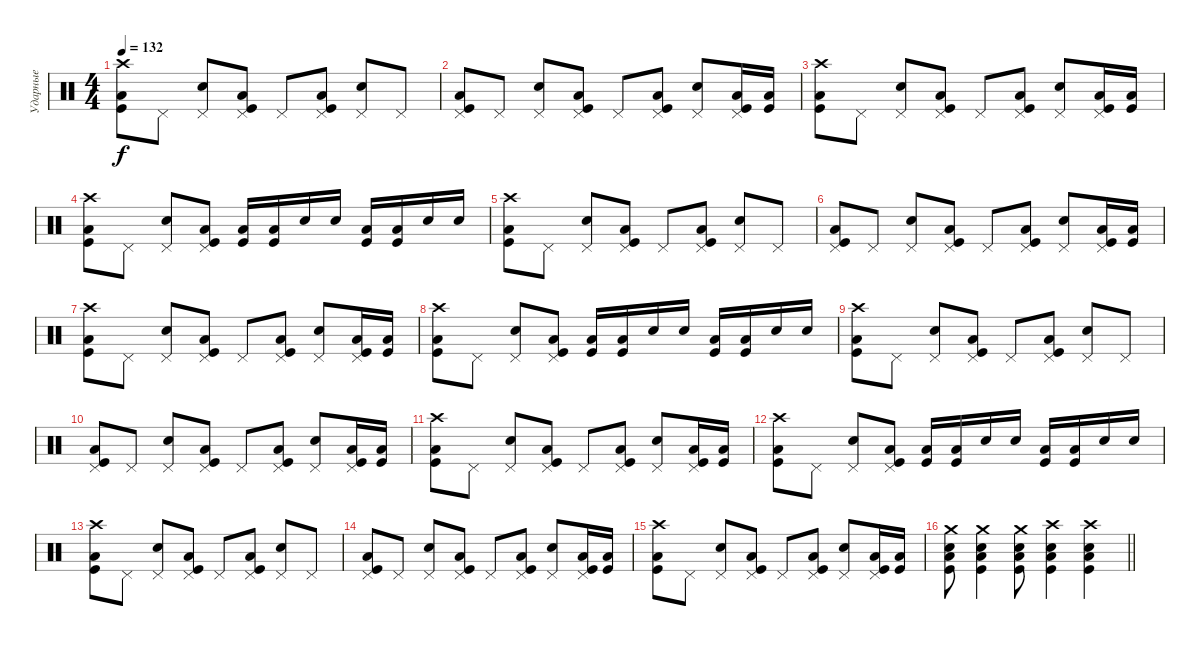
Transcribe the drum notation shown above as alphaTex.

\track ("Ударные" "Ударные") {instrument percussion}
\staff {score}
\articulation defaults
\ts (4 4)
\tempo 132
\clef neutral
\ks c
("Crash high (hit)" "Low Tom (hit)" "Kick (hit)").8{dy f} "Pedal Hi-Hat (hit)".8 ("Pedal Hi-Hat (hit)" "Snare (hit) 2").8 ("Pedal Hi-Hat (hit)" "Low Tom (hit)" "Kick (hit)").8 "Pedal Hi-Hat (hit)".8 ("Pedal Hi-Hat (hit)" "Low Tom (hit)" "Kick (hit)").8 ("Pedal Hi-Hat (hit)" "Snare (hit) 2").8 "Pedal Hi-Hat (hit)".8 |
("Pedal Hi-Hat (hit)" "Low Tom (hit)" "Kick (hit)").8 "Pedal Hi-Hat (hit)".8 ("Pedal Hi-Hat (hit)" "Snare (hit) 2").8 ("Pedal Hi-Hat (hit)" "Low Tom (hit)" "Kick (hit)").8 "Pedal Hi-Hat (hit)".8 ("Pedal Hi-Hat (hit)" "Low Tom (hit)" "Kick (hit)").8 ("Pedal Hi-Hat (hit)" "Snare (hit) 2").8 ("Pedal Hi-Hat (hit)" "Low Tom (hit)" "Kick (hit)").16 ("Low Tom (hit)" "Kick (hit)").16 |
("Crash high (hit)" "Low Tom (hit)" "Kick (hit)").8 "Pedal Hi-Hat (hit)".8 ("Pedal Hi-Hat (hit)" "Snare (hit) 2").8 ("Pedal Hi-Hat (hit)" "Low Tom (hit)" "Kick (hit)").8 "Pedal Hi-Hat (hit)".8 ("Pedal Hi-Hat (hit)" "Low Tom (hit)" "Kick (hit)").8 ("Pedal Hi-Hat (hit)" "Snare (hit) 2").8 ("Pedal Hi-Hat (hit)" "Low Tom (hit)" "Kick (hit)").16 ("Low Tom (hit)" "Kick (hit)").16 |
("Crash high (hit)" "Low Tom (hit)" "Kick (hit)").8 "Pedal Hi-Hat (hit)".8 ("Pedal Hi-Hat (hit)" "Snare (hit) 2").8 ("Pedal Hi-Hat (hit)" "Low Tom (hit)" "Kick (hit)").8 ("Low Tom (hit)" "Kick (hit)").16 ("Low Tom (hit)" "Kick (hit)").16 "Electric Snare (hit)".16 "Electric Snare (hit)".16 ("Low Tom (hit)" "Kick (hit)").16 ("Low Tom (hit)" "Kick (hit)").16 "Electric Snare (hit)".16 "Electric Snare (hit)".16 |
("Crash high (hit)" "Low Tom (hit)" "Kick (hit)").8 "Pedal Hi-Hat (hit)".8 ("Pedal Hi-Hat (hit)" "Snare (hit) 2").8 ("Pedal Hi-Hat (hit)" "Low Tom (hit)" "Kick (hit)").8 "Pedal Hi-Hat (hit)".8 ("Pedal Hi-Hat (hit)" "Low Tom (hit)" "Kick (hit)").8 ("Pedal Hi-Hat (hit)" "Snare (hit) 2").8 "Pedal Hi-Hat (hit)".8 |
("Pedal Hi-Hat (hit)" "Low Tom (hit)" "Kick (hit)").8 "Pedal Hi-Hat (hit)".8 ("Pedal Hi-Hat (hit)" "Snare (hit) 2").8 ("Pedal Hi-Hat (hit)" "Low Tom (hit)" "Kick (hit)").8 "Pedal Hi-Hat (hit)".8 ("Pedal Hi-Hat (hit)" "Low Tom (hit)" "Kick (hit)").8 ("Pedal Hi-Hat (hit)" "Snare (hit) 2").8 ("Pedal Hi-Hat (hit)" "Low Tom (hit)" "Kick (hit)").16 ("Low Tom (hit)" "Kick (hit)").16 |
("Crash high (hit)" "Low Tom (hit)" "Kick (hit)").8 "Pedal Hi-Hat (hit)".8 ("Pedal Hi-Hat (hit)" "Snare (hit) 2").8 ("Pedal Hi-Hat (hit)" "Low Tom (hit)" "Kick (hit)").8 "Pedal Hi-Hat (hit)".8 ("Pedal Hi-Hat (hit)" "Low Tom (hit)" "Kick (hit)").8 ("Pedal Hi-Hat (hit)" "Snare (hit) 2").8 ("Pedal Hi-Hat (hit)" "Low Tom (hit)" "Kick (hit)").16 ("Low Tom (hit)" "Kick (hit)").16 |
("Crash high (hit)" "Low Tom (hit)" "Kick (hit)").8 "Pedal Hi-Hat (hit)".8 ("Pedal Hi-Hat (hit)" "Snare (hit) 2").8 ("Pedal Hi-Hat (hit)" "Low Tom (hit)" "Kick (hit)").8 ("Low Tom (hit)" "Kick (hit)").16 ("Low Tom (hit)" "Kick (hit)").16 "Electric Snare (hit)".16 "Electric Snare (hit)".16 ("Low Tom (hit)" "Kick (hit)").16 ("Low Tom (hit)" "Kick (hit)").16 "Electric Snare (hit)".16 "Electric Snare (hit)".16 |
("Crash high (hit)" "Low Tom (hit)" "Kick (hit)").8 "Pedal Hi-Hat (hit)".8 ("Pedal Hi-Hat (hit)" "Snare (hit) 2").8 ("Pedal Hi-Hat (hit)" "Low Tom (hit)" "Kick (hit)").8 "Pedal Hi-Hat (hit)".8 ("Pedal Hi-Hat (hit)" "Low Tom (hit)" "Kick (hit)").8 ("Pedal Hi-Hat (hit)" "Snare (hit) 2").8 "Pedal Hi-Hat (hit)".8 |
("Pedal Hi-Hat (hit)" "Low Tom (hit)" "Kick (hit)").8 "Pedal Hi-Hat (hit)".8 ("Pedal Hi-Hat (hit)" "Snare (hit) 2").8 ("Pedal Hi-Hat (hit)" "Low Tom (hit)" "Kick (hit)").8 "Pedal Hi-Hat (hit)".8 ("Pedal Hi-Hat (hit)" "Low Tom (hit)" "Kick (hit)").8 ("Pedal Hi-Hat (hit)" "Snare (hit) 2").8 ("Pedal Hi-Hat (hit)" "Low Tom (hit)" "Kick (hit)").16 ("Low Tom (hit)" "Kick (hit)").16 |
("Crash high (hit)" "Low Tom (hit)" "Kick (hit)").8 "Pedal Hi-Hat (hit)".8 ("Pedal Hi-Hat (hit)" "Snare (hit) 2").8 ("Pedal Hi-Hat (hit)" "Low Tom (hit)" "Kick (hit)").8 "Pedal Hi-Hat (hit)".8 ("Pedal Hi-Hat (hit)" "Low Tom (hit)" "Kick (hit)").8 ("Pedal Hi-Hat (hit)" "Snare (hit) 2").8 ("Pedal Hi-Hat (hit)" "Low Tom (hit)" "Kick (hit)").16 ("Low Tom (hit)" "Kick (hit)").16 |
("Crash high (hit)" "Low Tom (hit)" "Kick (hit)").8 "Pedal Hi-Hat (hit)".8 ("Pedal Hi-Hat (hit)" "Snare (hit) 2").8 ("Pedal Hi-Hat (hit)" "Low Tom (hit)" "Kick (hit)").8 ("Low Tom (hit)" "Kick (hit)").16 ("Low Tom (hit)" "Kick (hit)").16 "Electric Snare (hit)".16 "Electric Snare (hit)".16 ("Low Tom (hit)" "Kick (hit)").16 ("Low Tom (hit)" "Kick (hit)").16 "Electric Snare (hit)".16 "Electric Snare (hit)".16 |
("Crash high (hit)" "Low Tom (hit)" "Kick (hit)").8 "Pedal Hi-Hat (hit)".8 ("Pedal Hi-Hat (hit)" "Snare (hit) 2").8 ("Pedal Hi-Hat (hit)" "Low Tom (hit)" "Kick (hit)").8 "Pedal Hi-Hat (hit)".8 ("Pedal Hi-Hat (hit)" "Low Tom (hit)" "Kick (hit)").8 ("Pedal Hi-Hat (hit)" "Snare (hit) 2").8 "Pedal Hi-Hat (hit)".8 |
("Pedal Hi-Hat (hit)" "Low Tom (hit)" "Kick (hit)").8 "Pedal Hi-Hat (hit)".8 ("Pedal Hi-Hat (hit)" "Snare (hit) 2").8 ("Pedal Hi-Hat (hit)" "Low Tom (hit)" "Kick (hit)").8 "Pedal Hi-Hat (hit)".8 ("Pedal Hi-Hat (hit)" "Low Tom (hit)" "Kick (hit)").8 ("Pedal Hi-Hat (hit)" "Snare (hit) 2").8 ("Pedal Hi-Hat (hit)" "Low Tom (hit)" "Kick (hit)").16 ("Low Tom (hit)" "Kick (hit)").16 |
("Crash high (hit)" "Low Tom (hit)" "Kick (hit)").8 "Pedal Hi-Hat (hit)".8 ("Pedal Hi-Hat (hit)" "Snare (hit) 2").8 ("Pedal Hi-Hat (hit)" "Low Tom (hit)" "Kick (hit)").8 "Pedal Hi-Hat (hit)".8 ("Pedal Hi-Hat (hit)" "Low Tom (hit)" "Kick (hit)").8 ("Pedal Hi-Hat (hit)" "Snare (hit) 2").8 ("Pedal Hi-Hat (hit)" "Low Tom (hit)" "Kick (hit)").16 ("Low Tom (hit)" "Kick (hit)").16 |
\barLineRight lightlight
("Crash medium (hit)" "Snare (hit) 2" "Low Tom (hit)" "Kick (hit)").8 ("Crash medium (hit)" "Snare (hit) 2" "Low Tom (hit)" "Kick (hit)").4 ("Crash medium (hit)" "Snare (hit) 2" "Low Tom (hit)" "Kick (hit)").8 ("Crash high (hit)" "Snare (hit) 2" "Low Tom (hit)" "Kick (hit)").4 ("Crash high (hit)" "Electric Snare (hit)" "Low Tom (hit)" "Kick (hit)").4
